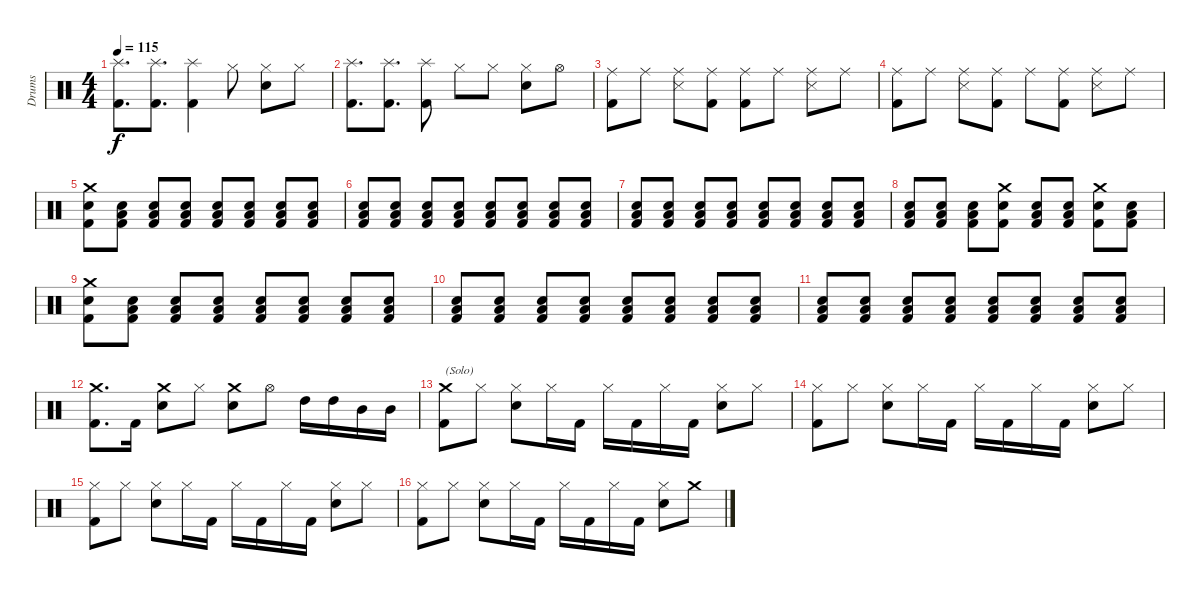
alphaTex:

\track ("Drums" "Drums") {instrument percussion}
\staff {score}
\articulation defaults
\ts (4 4)
\tempo 115
\clef neutral
\ks c
("Splash (hit)" "Kick (hit) 2").8{d dy f} ("Splash (hit)" "Kick (hit) 2").8{d} ("Splash (hit)" "Kick (hit) 2").4 "Hi-Hat (closed)".8 ("Hi-Hat (closed)" "Snare (hit) 2").8 "Hi-Hat (closed)".8 |
("Splash (hit)" "Kick (hit) 2").8{d} ("Splash (hit)" "Kick (hit) 2").8{d} ("Splash (hit)" "Kick (hit) 2").8 "Hi-Hat (closed)".8 "Hi-Hat (closed)".8 ("Hi-Hat (closed)" "Snare (hit) 2").8 "Hi-Hat (open)".8 |
("Ride (middle)" "Kick (hit) 2").8 "Ride (middle)".8 ("Ride (middle)" "Snare (side stick) 3").8 ("Ride (middle)" "Kick (hit) 2").8 ("Ride (middle)" "Kick (hit) 2").8 "Ride (middle)".8 ("Ride (middle)" "Snare (side stick) 3").8 "Ride (middle)".8 |
("Ride (middle)" "Kick (hit) 2").8 "Ride (middle)".8 ("Ride (middle)" "Snare (side stick) 3").8 ("Ride (middle)" "Kick (hit) 2").8 "Ride (middle)".8 ("Ride (middle)" "Kick (hit) 2").8 ("Ride (middle)" "Snare (side stick) 3").8 "Ride (middle)".8 |
("Crash medium (hit)" "Snare (hit) 2" "Kick (hit) 2").8 ("Low Tom (hit)" "Snare (hit) 2" "Kick (hit) 2").8 ("Low Tom (hit)" "Snare (hit) 2" "Kick (hit) 2").8 ("Low Tom (hit)" "Snare (hit) 2" "Kick (hit) 2").8 ("Low Tom (hit)" "Snare (hit) 2" "Kick (hit) 2").8 ("Low Tom (hit)" "Snare (hit) 2" "Kick (hit) 2").8 ("Low Tom (hit)" "Snare (hit) 2" "Kick (hit) 2").8 ("Low Tom (hit)" "Snare (hit) 2" "Kick (hit) 2").8 |
("Low Tom (hit)" "Snare (hit) 2" "Kick (hit) 2").8 ("Low Tom (hit)" "Snare (hit) 2" "Kick (hit) 2").8 ("Low Tom (hit)" "Snare (hit) 2" "Kick (hit) 2").8 ("Low Tom (hit)" "Snare (hit) 2" "Kick (hit) 2").8 ("Low Tom (hit)" "Snare (hit) 2" "Kick (hit) 2").8 ("Low Tom (hit)" "Snare (hit) 2" "Kick (hit) 2").8 ("Low Tom (hit)" "Snare (hit) 2" "Kick (hit) 2").8 ("Low Tom (hit)" "Snare (hit) 2" "Kick (hit) 2").8 |
("Low Tom (hit)" "Snare (hit) 2" "Kick (hit) 2").8 ("Low Tom (hit)" "Snare (hit) 2" "Kick (hit) 2").8 ("Low Tom (hit)" "Snare (hit) 2" "Kick (hit) 2").8 ("Low Tom (hit)" "Snare (hit) 2" "Kick (hit) 2").8 ("Low Tom (hit)" "Snare (hit) 2" "Kick (hit) 2").8 ("Low Tom (hit)" "Snare (hit) 2" "Kick (hit) 2").8 ("Low Tom (hit)" "Snare (hit) 2" "Kick (hit) 2").8 ("Low Tom (hit)" "Snare (hit) 2" "Kick (hit) 2").8 |
("Low Tom (hit)" "Snare (hit) 2" "Kick (hit) 2").8 ("Low Tom (hit)" "Snare (hit) 2" "Kick (hit) 2").8 ("Low Tom (hit)" "Snare (hit) 2" "Kick (hit) 2").8 ("Crash medium (hit)" "Snare (hit) 2" "Kick (hit) 2").8 ("Low Tom (hit)" "Snare (hit) 2" "Kick (hit) 2").8 ("Low Tom (hit)" "Snare (hit) 2" "Kick (hit) 2").8 ("Crash medium (hit)" "Snare (hit) 2" "Kick (hit) 2").8 ("Low Tom (hit)" "Snare (hit) 2" "Kick (hit) 2").8 |
("Crash medium (hit)" "Snare (hit) 2" "Kick (hit) 2").8 ("Low Tom (hit)" "Snare (hit) 2" "Kick (hit) 2").8 ("Low Tom (hit)" "Snare (hit) 2" "Kick (hit) 2").8 ("Low Tom (hit)" "Snare (hit) 2" "Kick (hit) 2").8 ("Low Tom (hit)" "Snare (hit) 2" "Kick (hit) 2").8 ("Low Tom (hit)" "Snare (hit) 2" "Kick (hit) 2").8 ("Low Tom (hit)" "Snare (hit) 2" "Kick (hit) 2").8 ("Low Tom (hit)" "Snare (hit) 2" "Kick (hit) 2").8 |
("Low Tom (hit)" "Snare (hit) 2" "Kick (hit) 2").8 ("Low Tom (hit)" "Snare (hit) 2" "Kick (hit) 2").8 ("Low Tom (hit)" "Snare (hit) 2" "Kick (hit) 2").8 ("Low Tom (hit)" "Snare (hit) 2" "Kick (hit) 2").8 ("Low Tom (hit)" "Snare (hit) 2" "Kick (hit) 2").8 ("Low Tom (hit)" "Snare (hit) 2" "Kick (hit) 2").8 ("Low Tom (hit)" "Snare (hit) 2" "Kick (hit) 2").8 ("Low Tom (hit)" "Snare (hit) 2" "Kick (hit) 2").8 |
("Low Tom (hit)" "Snare (hit) 2" "Kick (hit) 2").8 ("Low Tom (hit)" "Snare (hit) 2" "Kick (hit) 2").8 ("Low Tom (hit)" "Snare (hit) 2" "Kick (hit) 2").8 ("Low Tom (hit)" "Snare (hit) 2" "Kick (hit) 2").8 ("Low Tom (hit)" "Snare (hit) 2" "Kick (hit) 2").8 ("Low Tom (hit)" "Snare (hit) 2" "Kick (hit) 2").8 ("Low Tom (hit)" "Snare (hit) 2" "Kick (hit) 2").8 ("Low Tom (hit)" "Snare (hit) 2" "Kick (hit) 2").8 |
("Crash medium (hit)" "Kick (hit) 2").8{d} "Kick (hit) 2".16 ("Crash medium (hit)" "Snare (hit) 2").8 "Hi-Hat (closed)".8 ("Crash medium (hit)" "Snare (hit) 2").8 "Hi-Hat (open)".8 "High Tom (hit)".16 "High Tom (hit)".16 "Mid Tom (hit)".16 "Mid Tom (hit)".16 |
("Crash medium (hit)" "Kick (hit) 2").8{txt "(Solo)"} "Hi-Hat (closed)".8 ("Hi-Hat (closed)" "Snare (hit) 2").8 "Hi-Hat (closed)".16 "Kick (hit) 2".16 "Hi-Hat (closed)".16 "Kick (hit) 2".16 "Hi-Hat (closed)".16 "Kick (hit) 2".16 ("Hi-Hat (closed)" "Snare (hit) 2").8 "Hi-Hat (closed)".8 |
("Hi-Hat (closed)" "Kick (hit) 2").8 "Hi-Hat (closed)".8 ("Hi-Hat (closed)" "Snare (hit) 2").8 "Hi-Hat (closed)".16 "Kick (hit) 2".16 "Hi-Hat (closed)".16 "Kick (hit) 2".16 "Hi-Hat (closed)".16 "Kick (hit) 2".16 ("Hi-Hat (closed)" "Snare (hit) 2").8 "Hi-Hat (closed)".8 |
("Hi-Hat (closed)" "Kick (hit) 2").8 "Hi-Hat (closed)".8 ("Hi-Hat (closed)" "Snare (hit) 2").8 "Hi-Hat (closed)".16 "Kick (hit) 2".16 "Hi-Hat (closed)".16 "Kick (hit) 2".16 "Hi-Hat (closed)".16 "Kick (hit) 2".16 ("Hi-Hat (closed)" "Snare (hit) 2").8 "Hi-Hat (closed)".8 |
("Hi-Hat (closed)" "Kick (hit) 2").8 "Hi-Hat (closed)".8 ("Hi-Hat (closed)" "Snare (hit) 2").8 "Hi-Hat (closed)".16 "Kick (hit) 2".16 "Hi-Hat (closed)".16 "Kick (hit) 2".16 "Hi-Hat (closed)".16 "Kick (hit) 2".16 ("Hi-Hat (closed)" "Snare (hit) 2").8 "Crash medium (hit)".8
